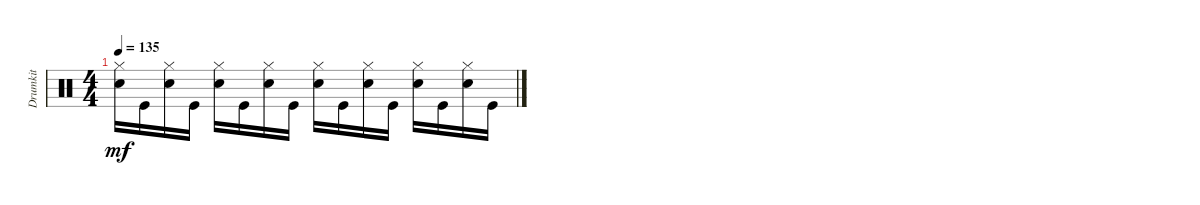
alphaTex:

\track ("Drumkit" "Drumkit") {instrument percussion}
\staff {score}
\articulation defaults
\ts (4 4)
\tempo 135
\clef neutral
\ks c
("Hi-Hat (closed)" "Snare (hit) 2").16{dy mf} "Kick (hit)".16 ("Hi-Hat (closed)" "Snare (hit) 2").16 "Kick (hit)".16 ("Hi-Hat (closed)" "Snare (hit) 2").16 "Kick (hit)".16 ("Hi-Hat (closed)" "Snare (hit) 2").16 "Kick (hit)".16 ("Hi-Hat (closed)" "Snare (hit) 2").16 "Kick (hit)".16 ("Hi-Hat (closed)" "Snare (hit) 2").16 "Kick (hit)".16 ("Hi-Hat (closed)" "Snare (hit) 2").16 "Kick (hit)".16 ("Hi-Hat (closed)" "Snare (hit) 2").16 "Kick (hit)".16
